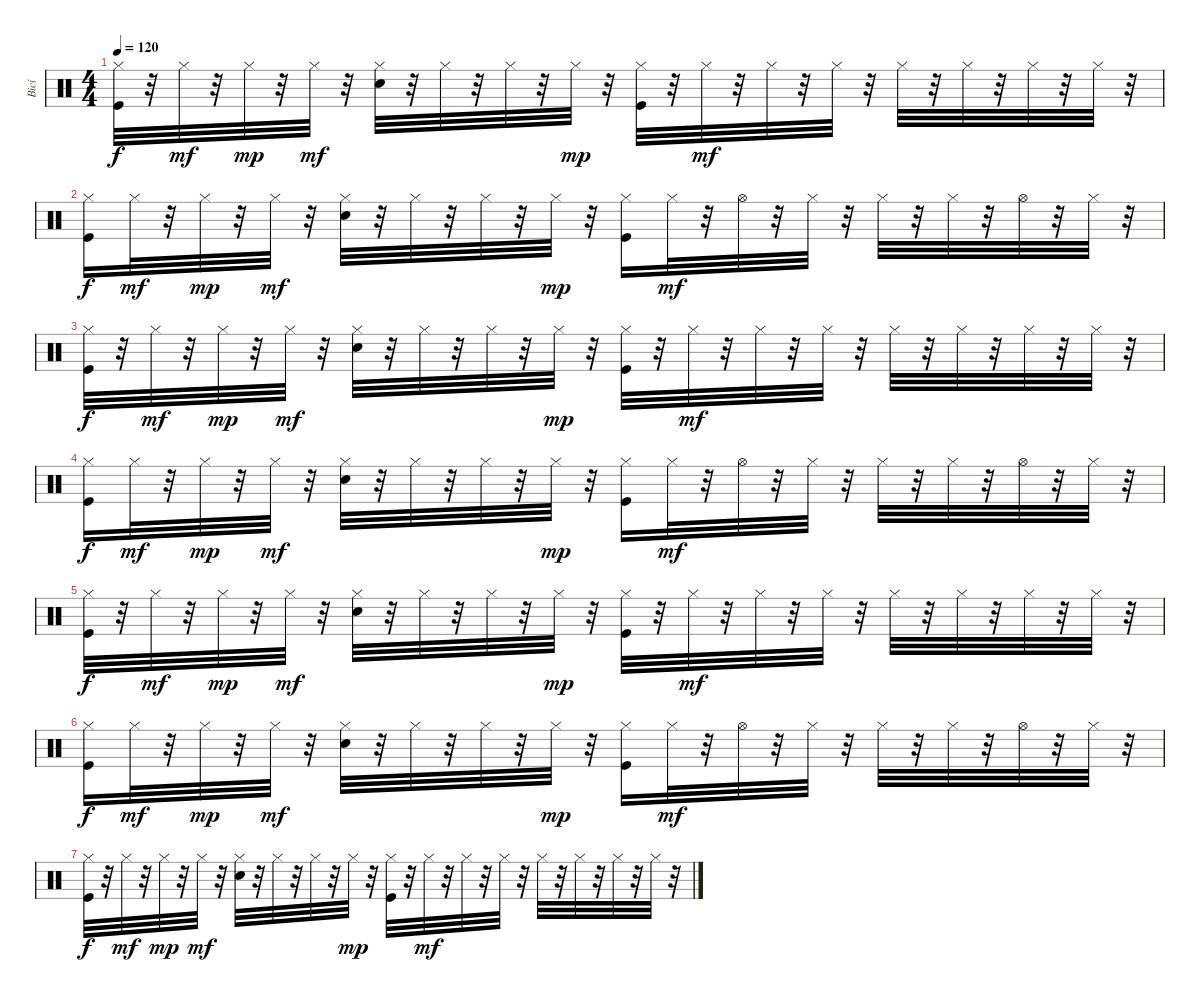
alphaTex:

\track ("Bicí" "Bicí") {instrument percussion}
\staff {score}
\articulation defaults
\ts (4 4)
\tempo 120
\clef neutral
\ks c
("Hi-Hat (closed)" "Kick (hit)").32{dy f} r.32 "Hi-Hat (closed)".32{dy mf} r.32 "Hi-Hat (closed)".32{dy mp} r.32 "Hi-Hat (closed)".32{dy mf} r.32 ("Hi-Hat (closed)" "Snare (hit) 2").32 r.32 "Hi-Hat (closed)".32 r.32 "Hi-Hat (closed)".32 r.32 "Hi-Hat (closed)".32{dy mp} r.32 ("Hi-Hat (closed)" "Kick (hit)").32 r.32 "Hi-Hat (closed)".32{dy mf} r.32 "Hi-Hat (closed)".32 r.32 "Hi-Hat (closed)".32 r.32 "Hi-Hat (closed)".32 r.32 "Hi-Hat (closed)".32 r.32 "Hi-Hat (closed)".32 r.32 "Hi-Hat (closed)".32 r.32 |
("Hi-Hat (closed)" "Kick (hit)").16{dy f} "Hi-Hat (closed)".32{dy mf} r.32 "Hi-Hat (closed)".32{dy mp} r.32 "Hi-Hat (closed)".32{dy mf} r.32 ("Hi-Hat (closed)" "Snare (hit) 2").32 r.32 "Hi-Hat (closed)".32 r.32 "Hi-Hat (closed)".32 r.32 "Hi-Hat (closed)".32{dy mp} r.32 ("Hi-Hat (closed)" "Kick (hit)").16 "Hi-Hat (closed)".32{dy mf} r.32 "Hi-Hat (open)".32 r.32 "Hi-Hat (closed)".32 r.32 "Hi-Hat (closed)".32 r.32 "Hi-Hat (closed)".32 r.32 "Hi-Hat (open)".32 r.32 "Hi-Hat (closed)".32 r.32 |
("Hi-Hat (closed)" "Kick (hit)").32{dy f} r.32 "Hi-Hat (closed)".32{dy mf} r.32 "Hi-Hat (closed)".32{dy mp} r.32 "Hi-Hat (closed)".32{dy mf} r.32 ("Hi-Hat (closed)" "Snare (hit) 2").32 r.32 "Hi-Hat (closed)".32 r.32 "Hi-Hat (closed)".32 r.32 "Hi-Hat (closed)".32{dy mp} r.32 ("Hi-Hat (closed)" "Kick (hit)").32 r.32 "Hi-Hat (closed)".32{dy mf} r.32 "Hi-Hat (closed)".32 r.32 "Hi-Hat (closed)".32 r.32 "Hi-Hat (closed)".32 r.32 "Hi-Hat (closed)".32 r.32 "Hi-Hat (closed)".32 r.32 "Hi-Hat (closed)".32 r.32 |
("Hi-Hat (closed)" "Kick (hit)").16{dy f} "Hi-Hat (closed)".32{dy mf} r.32 "Hi-Hat (closed)".32{dy mp} r.32 "Hi-Hat (closed)".32{dy mf} r.32 ("Hi-Hat (closed)" "Snare (hit) 2").32 r.32 "Hi-Hat (closed)".32 r.32 "Hi-Hat (closed)".32 r.32 "Hi-Hat (closed)".32{dy mp} r.32 ("Hi-Hat (closed)" "Kick (hit)").16 "Hi-Hat (closed)".32{dy mf} r.32 "Hi-Hat (open)".32 r.32 "Hi-Hat (closed)".32 r.32 "Hi-Hat (closed)".32 r.32 "Hi-Hat (closed)".32 r.32 "Hi-Hat (open)".32 r.32 "Hi-Hat (closed)".32 r.32 |
("Hi-Hat (closed)" "Kick (hit)").32{dy f} r.32 "Hi-Hat (closed)".32{dy mf} r.32 "Hi-Hat (closed)".32{dy mp} r.32 "Hi-Hat (closed)".32{dy mf} r.32 ("Hi-Hat (closed)" "Snare (hit) 2").32 r.32 "Hi-Hat (closed)".32 r.32 "Hi-Hat (closed)".32 r.32 "Hi-Hat (closed)".32{dy mp} r.32 ("Hi-Hat (closed)" "Kick (hit)").32 r.32 "Hi-Hat (closed)".32{dy mf} r.32 "Hi-Hat (closed)".32 r.32 "Hi-Hat (closed)".32 r.32 "Hi-Hat (closed)".32 r.32 "Hi-Hat (closed)".32 r.32 "Hi-Hat (closed)".32 r.32 "Hi-Hat (closed)".32 r.32 |
("Hi-Hat (closed)" "Kick (hit)").16{dy f} "Hi-Hat (closed)".32{dy mf} r.32 "Hi-Hat (closed)".32{dy mp} r.32 "Hi-Hat (closed)".32{dy mf} r.32 ("Hi-Hat (closed)" "Snare (hit) 2").32 r.32 "Hi-Hat (closed)".32 r.32 "Hi-Hat (closed)".32 r.32 "Hi-Hat (closed)".32{dy mp} r.32 ("Hi-Hat (closed)" "Kick (hit)").16 "Hi-Hat (closed)".32{dy mf} r.32 "Hi-Hat (open)".32 r.32 "Hi-Hat (closed)".32 r.32 "Hi-Hat (closed)".32 r.32 "Hi-Hat (closed)".32 r.32 "Hi-Hat (open)".32 r.32 "Hi-Hat (closed)".32 r.32 |
("Hi-Hat (closed)" "Kick (hit)").32{dy f} r.32 "Hi-Hat (closed)".32{dy mf} r.32 "Hi-Hat (closed)".32{dy mp} r.32 "Hi-Hat (closed)".32{dy mf} r.32 ("Hi-Hat (closed)" "Snare (hit) 2").32 r.32 "Hi-Hat (closed)".32 r.32 "Hi-Hat (closed)".32 r.32 "Hi-Hat (closed)".32{dy mp} r.32 ("Hi-Hat (closed)" "Kick (hit)").32 r.32 "Hi-Hat (closed)".32{dy mf} r.32 "Hi-Hat (closed)".32 r.32 "Hi-Hat (closed)".32 r.32 "Hi-Hat (closed)".32 r.32 "Hi-Hat (closed)".32 r.32 "Hi-Hat (closed)".32 r.32 "Hi-Hat (closed)".32 r.32
